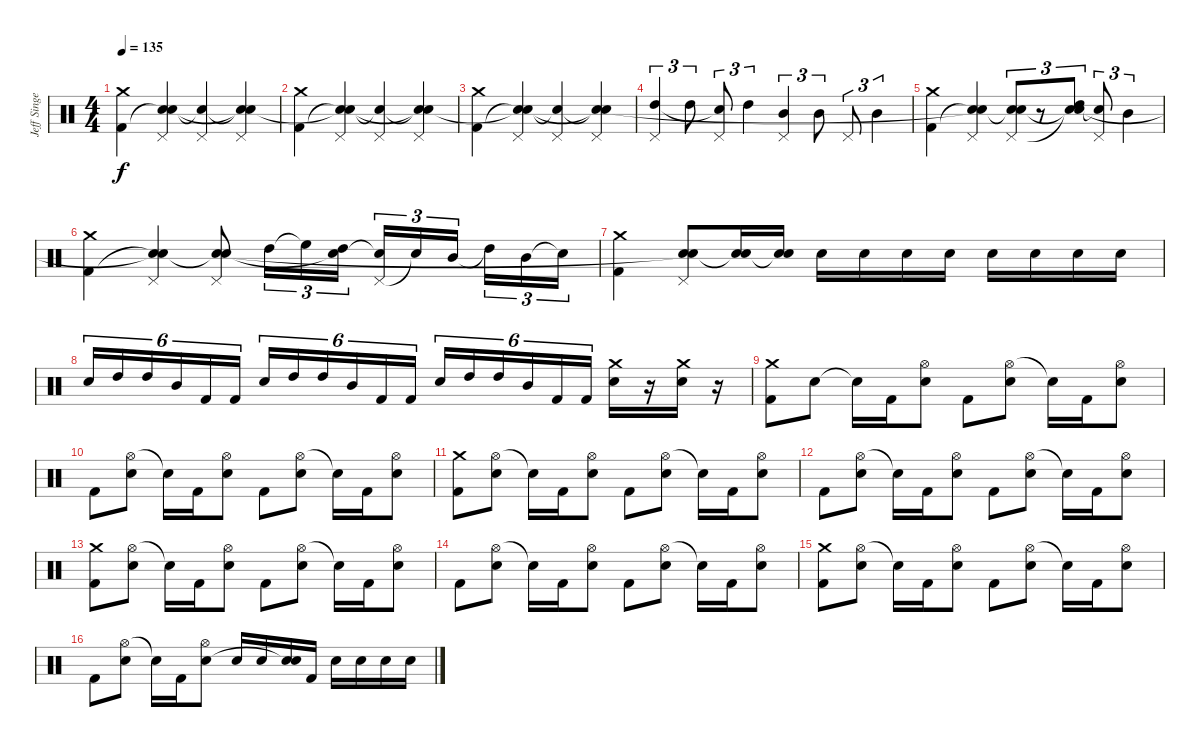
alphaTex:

\track ("Jeff Singer" "Jeff Singe") {instrument percussion}
\staff {score}
\articulation defaults
\ts (4 4)
\tempo 135
\clef neutral
\ks c
("Crash medium (hit)" "Kick (hit) 2").4{dy f} ("Pedal Hi-Hat (hit)" "Snare (hit)"{t} "Snare (hit)").4 ("Pedal Hi-Hat (hit)" "Snare (hit)"{t}).4 ("Pedal Hi-Hat (hit)" "Snare (hit)"{t} "Snare (hit)"{t}).4 |
("Crash medium (hit)" "Kick (hit) 2").4 ("Pedal Hi-Hat (hit)" "Snare (hit)"{t} "Snare (hit)"{t}).4 ("Pedal Hi-Hat (hit)" "Snare (hit)"{t}).4 ("Pedal Hi-Hat (hit)" "Snare (hit)"{t} "Snare (hit)"{t}).4 |
("Crash medium (hit)" "Kick (hit) 2").4 ("Pedal Hi-Hat (hit)" "Snare (hit)"{t} "Snare (hit)"{t}).4 ("Pedal Hi-Hat (hit)" "Snare (hit)"{t}).4 ("Pedal Hi-Hat (hit)" "Snare (hit)"{t} "Snare (hit)"{t}).4 |
("Pedal Hi-Hat (hit)" "High Tom (hit)").4{tu (3 2)} "High Tom (hit)".8{tu (3 2)} ("Pedal Hi-Hat (hit)" "Snare (hit)"{t}).8{tu (3 2)} "High Tom (hit)".4{tu (3 2)} ("Pedal Hi-Hat (hit)" "Mid Tom (hit)").4{tu (3 2)} "Mid Tom (hit)".8{tu (3 2)} "Pedal Hi-Hat (hit)".8{tu (3 2)} "Mid Tom (hit)".4{tu (3 2)} |
("Crash medium (hit)" "Kick (hit) 2").4 ("Pedal Hi-Hat (hit)" "Snare (hit)"{t} "Snare (hit)"{t}).4 ("Pedal Hi-Hat (hit)" "Snare (hit) 2" "Snare (hit)"{t}).8{tu (3 2)} r.8{tu (3 2)} ("Snare (hit)"{t} "High Tom (hit)" "Snare (hit)"{t}).8{tu (3 2)} ("Pedal Hi-Hat (hit)" "Snare (hit)"{t}).8{tu (3 2)} "Mid Tom (hit)".4{tu (3 2)} |
("Crash medium (hit)" "Kick (hit) 2").4 ("Pedal Hi-Hat (hit)" "Snare (hit)"{t} "Snare (hit)"{t}).4 ("Pedal Hi-Hat (hit)" "Snare (hit) 2" "Snare (hit)"{t}).8 "High Tom (hit)".16{tu (3 2)} "High Floor Tom (hit)"{t}.16{tu (3 2)} ("High Tom (hit)" "Snare (hit)"{t}).16{tu (3 2)} ("Pedal Hi-Hat (hit)" "Snare (hit)"{t}).16{tu (3 2)} "Snare (hit)"{t}.16{tu (3 2)} "Mid Tom (hit)".16{tu (3 2)} "High Tom (hit)"{t}.16{tu (3 2)} "Mid Tom (hit)".16{tu (3 2)} "Snare (hit)"{t}.16{tu (3 2)} |
("Crash medium (hit)" "Kick (hit) 2").4 ("Pedal Hi-Hat (hit)" "Snare (hit) 2" "Snare (hit)"{t}).8 ("Snare (hit) 2" "Snare (hit)"{t}).16 ("Snare (hit) 2" "Snare (hit)"{t}).16 "Snare (hit) 2".16 "Snare (hit) 2".16 "Snare (hit) 2".16 "Snare (hit) 2".16 "Snare (hit) 2".16 "Snare (hit) 2".16 "Snare (hit) 2".16 "Snare (hit) 2".16 |
"Snare (hit) 2".16{tu (6 4)} "High Tom (hit)".16{tu (6 4)} "High Tom (hit)".16{tu (6 4)} "Mid Tom (hit)".16{tu (6 4)} "Kick (hit) 2".16{tu (6 4)} "Kick (hit) 2".16{tu (6 4)} "Snare (hit) 2".16{tu (6 4)} "High Tom (hit)".16{tu (6 4)} "High Tom (hit)".16{tu (6 4)} "Mid Tom (hit)".16{tu (6 4)} "Kick (hit) 2".16{tu (6 4)} "Kick (hit) 2".16{tu (6 4)} "Snare (hit) 2".16{tu (6 4)} "High Tom (hit)".16{tu (6 4)} "High Tom (hit)".16{tu (6 4)} "Mid Tom (hit)".16{tu (6 4)} "Kick (hit) 2".16{tu (6 4)} "Kick (hit) 2".16{tu (6 4)} ("Crash medium (hit)" "Snare (hit) 2").16 r.16 ("Crash medium (hit)" "Snare (hit) 2").16 r.16 |
("Crash medium (hit)" "Kick (hit) 2").8 "Snare (hit) 2".8 "Snare (hit)"{t}.16 "Kick (hit) 2".16 ("Hi-Hat (open)" "Snare (hit) 2").8 "Kick (hit) 2".8 ("Hi-Hat (open)" "Snare (hit) 2").8 "Snare (hit)"{t}.16 "Kick (hit) 2".16 ("Hi-Hat (open)" "Snare (hit) 2").8 |
"Kick (hit) 2".8 ("Hi-Hat (open)" "Snare (hit) 2").8 "Snare (hit)"{t}.16 "Kick (hit) 2".16 ("Hi-Hat (open)" "Snare (hit) 2").8 "Kick (hit) 2".8 ("Hi-Hat (open)" "Snare (hit) 2").8 "Snare (hit)"{t}.16 "Kick (hit) 2".16 ("Hi-Hat (open)" "Snare (hit) 2").8 |
("Crash medium (hit)" "Kick (hit) 2").8 ("Hi-Hat (open)" "Snare (hit) 2").8 "Snare (hit)"{t}.16 "Kick (hit) 2".16 ("Hi-Hat (open)" "Snare (hit) 2").8 "Kick (hit) 2".8 ("Hi-Hat (open)" "Snare (hit) 2").8 "Snare (hit)"{t}.16 "Kick (hit) 2".16 ("Hi-Hat (open)" "Snare (hit) 2").8 |
"Kick (hit) 2".8 ("Hi-Hat (open)" "Snare (hit) 2").8 "Snare (hit)"{t}.16 "Kick (hit) 2".16 ("Hi-Hat (open)" "Snare (hit) 2").8 "Kick (hit) 2".8 ("Hi-Hat (open)" "Snare (hit) 2").8 "Snare (hit)"{t}.16 "Kick (hit) 2".16 ("Hi-Hat (open)" "Snare (hit) 2").8 |
("Crash medium (hit)" "Kick (hit) 2").8 ("Hi-Hat (open)" "Snare (hit) 2").8 "Snare (hit)"{t}.16 "Kick (hit) 2".16 ("Hi-Hat (open)" "Snare (hit) 2").8 "Kick (hit) 2".8 ("Hi-Hat (open)" "Snare (hit) 2").8 "Snare (hit)"{t}.16 "Kick (hit) 2".16 ("Hi-Hat (open)" "Snare (hit) 2").8 |
"Kick (hit) 2".8 ("Hi-Hat (open)" "Snare (hit) 2").8 "Snare (hit)"{t}.16 "Kick (hit) 2".16 ("Hi-Hat (open)" "Snare (hit) 2").8 "Kick (hit) 2".8 ("Hi-Hat (open)" "Snare (hit) 2").8 "Snare (hit)"{t}.16 "Kick (hit) 2".16 ("Hi-Hat (open)" "Snare (hit) 2").8 |
("Crash medium (hit)" "Kick (hit) 2").8 ("Hi-Hat (open)" "Snare (hit) 2").8 "Snare (hit)"{t}.16 "Kick (hit) 2".16 ("Hi-Hat (open)" "Snare (hit) 2").8 "Kick (hit) 2".8 ("Hi-Hat (open)" "Snare (hit) 2").8 "Snare (hit)"{t}.16 "Kick (hit) 2".16 ("Hi-Hat (open)" "Snare (hit) 2").8 |
"Kick (hit) 2".8 ("Hi-Hat (open)" "Snare (hit) 2").8 "Snare (hit)"{t}.16 "Kick (hit) 2".16 ("Hi-Hat (open)" "Snare (hit) 2").8 "Snare (hit) 2".16 "Snare (hit) 2".16 ("Snare (hit) 2" "Snare (hit)"{t}).16 "Kick (hit) 2".16 "Snare (hit) 2".16 "Snare (hit) 2".16 "Snare (hit) 2".16 "Snare (hit) 2".16
